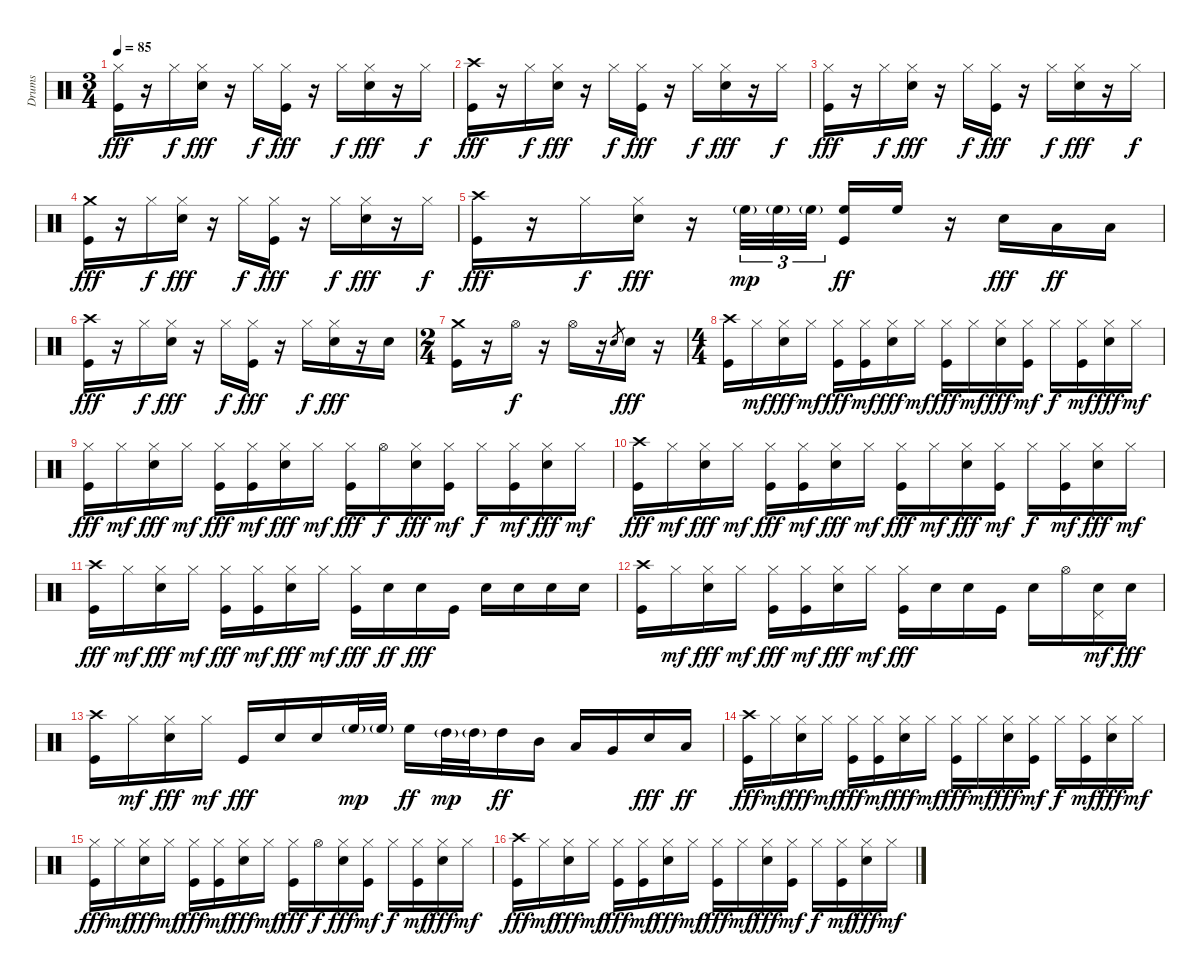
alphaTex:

\track ("Drums" "Drums") {instrument percussion}
\staff {score}
\articulation defaults
\ts (3 4)
\tempo 85
\clef neutral
\ks c
("Kick (hit)" "Hi-Hat (closed)").16{dy fff} r.16 "Hi-Hat (closed)".16{dy f} ("Electric Snare (hit)" "Hi-Hat (closed)").16{dy fff} r.16 "Hi-Hat (closed)".16{dy f} ("Kick (hit)" "Hi-Hat (closed)").16{dy fff} r.16 "Hi-Hat (closed)".16{dy f} ("Electric Snare (hit)" "Hi-Hat (closed)").16{dy fff} r.16 "Hi-Hat (closed)".16{dy f} |
("Kick (hit)" "Crash high (hit)").16{dy fff} r.16 "Hi-Hat (closed)".16{dy f} ("Electric Snare (hit)" "Hi-Hat (closed)").16{dy fff} r.16 "Hi-Hat (closed)".16{dy f} ("Kick (hit)" "Hi-Hat (closed)").16{dy fff} r.16 "Hi-Hat (closed)".16{dy f} ("Electric Snare (hit)" "Hi-Hat (closed)").16{dy fff} r.16 "Hi-Hat (closed)".16{dy f} |
("Kick (hit)" "Hi-Hat (closed)").16{dy fff} r.16 "Hi-Hat (closed)".16{dy f} ("Electric Snare (hit)" "Hi-Hat (closed)").16{dy fff} r.16 "Hi-Hat (closed)".16{dy f} ("Kick (hit)" "Hi-Hat (closed)").16{dy fff} r.16 "Hi-Hat (closed)".16{dy f} ("Electric Snare (hit)" "Hi-Hat (closed)").16{dy fff} r.16 "Hi-Hat (closed)".16{dy f} |
("Kick (hit)" "Crash medium (hit)").16{dy fff} r.16 "Hi-Hat (closed)".16{dy f} ("Electric Snare (hit)" "Hi-Hat (closed)").16{dy fff} r.16 "Hi-Hat (closed)".16{dy f} ("Kick (hit)" "Hi-Hat (closed)").16{dy fff} r.16 "Hi-Hat (closed)".16{dy f} ("Electric Snare (hit)" "Hi-Hat (closed)").16{dy fff} r.16 "Hi-Hat (closed)".16{dy f} |
("Kick (hit)" "Crash high (hit)").16{dy fff} r.16 "Hi-Hat (closed)".16{dy f} ("Electric Snare (hit)" "Hi-Hat (closed)").16{dy fff} r.16 "High Floor Tom (hit)"{g}.32{tu (3 2) dy mp} "High Floor Tom (hit)"{g}.32{tu (3 2)} "High Floor Tom (hit)"{g}.32{tu (3 2)} ("Kick (hit)" "High Floor Tom (hit)").16{dy ff} "High Floor Tom (hit)".16 r.16 "Electric Snare (hit)".16{dy fff} "Low Tom (hit)".16{dy ff} "Low Tom (hit)".16 |
("Kick (hit)" "Crash high (hit)").16{dy fff} r.16 "Hi-Hat (closed)".16{dy f} ("Electric Snare (hit)" "Hi-Hat (closed)").16{dy fff} r.16 "Hi-Hat (closed)".16{dy f} ("Kick (hit)" "Hi-Hat (closed)").16{dy fff} r.16 "Hi-Hat (closed)".16{dy f} ("Electric Snare (hit)" "Hi-Hat (closed)").16{dy fff} r.16 "Electric Snare (hit)".16 |
\ts (2 4)
("Kick (hit)" "Crash medium (hit)").16 r.16 "Hi-Hat (open)".16{dy f} r.16 "Hi-Hat (open)".16 r.16 "Electric Snare (hit)".8{gr} "Electric Snare (hit)".16{dy fff} r.16 |
\ts (4 4)
("Kick (hit)" "Crash high (hit)").16 "Hi-Hat (closed)".16{dy mf} ("Electric Snare (hit)" "Hi-Hat (closed)").16{dy fff} "Hi-Hat (closed)".16{dy mf} ("Kick (hit)" "Hi-Hat (closed)").16{dy fff} ("Kick (hit)" "Hi-Hat (closed)").16{dy mf} ("Electric Snare (hit)" "Hi-Hat (closed)").16{dy fff} "Hi-Hat (closed)".16{dy mf} ("Kick (hit)" "Hi-Hat (closed)").16{dy fff} "Hi-Hat (closed)".16{dy mf} ("Electric Snare (hit)" "Hi-Hat (closed)").16{dy fff} ("Kick (hit)" "Hi-Hat (closed)").16{dy mf} "Hi-Hat (closed)".16{dy f} ("Kick (hit)" "Hi-Hat (closed)").16{dy mf} ("Electric Snare (hit)" "Hi-Hat (closed)").16{dy fff} "Hi-Hat (closed)".16{dy mf} |
("Kick (hit)" "Hi-Hat (closed)").16{dy fff} "Hi-Hat (closed)".16{dy mf} ("Electric Snare (hit)" "Hi-Hat (closed)").16{dy fff} "Hi-Hat (closed)".16{dy mf} ("Kick (hit)" "Hi-Hat (closed)").16{dy fff} ("Kick (hit)" "Hi-Hat (closed)").16{dy mf} ("Electric Snare (hit)" "Hi-Hat (closed)").16{dy fff} "Hi-Hat (closed)".16{dy mf} ("Kick (hit)" "Hi-Hat (closed)").16{dy fff} "Hi-Hat (open)".16{dy f} ("Electric Snare (hit)" "Hi-Hat (closed)").16{dy fff} ("Kick (hit)" "Hi-Hat (closed)").16{dy mf} "Hi-Hat (closed)".16{dy f} ("Kick (hit)" "Hi-Hat (closed)").16{dy mf} ("Electric Snare (hit)" "Hi-Hat (closed)").16{dy fff} "Hi-Hat (closed)".16{dy mf} |
("Kick (hit)" "Crash high (hit)").16{dy fff} "Hi-Hat (closed)".16{dy mf} ("Electric Snare (hit)" "Hi-Hat (closed)").16{dy fff} "Hi-Hat (closed)".16{dy mf} ("Kick (hit)" "Hi-Hat (closed)").16{dy fff} ("Kick (hit)" "Hi-Hat (closed)").16{dy mf} ("Electric Snare (hit)" "Hi-Hat (closed)").16{dy fff} "Hi-Hat (closed)".16{dy mf} ("Kick (hit)" "Hi-Hat (closed)").16{dy fff} "Hi-Hat (closed)".16{dy mf} ("Electric Snare (hit)" "Hi-Hat (closed)").16{dy fff} ("Kick (hit)" "Hi-Hat (closed)").16{dy mf} "Hi-Hat (closed)".16{dy f} ("Kick (hit)" "Hi-Hat (closed)").16{dy mf} ("Electric Snare (hit)" "Hi-Hat (closed)").16{dy fff} "Hi-Hat (closed)".16{dy mf} |
("Kick (hit)" "Crash high (hit)").16{dy fff} "Hi-Hat (closed)".16{dy mf} ("Electric Snare (hit)" "Hi-Hat (closed)").16{dy fff} "Hi-Hat (closed)".16{dy mf} ("Kick (hit)" "Hi-Hat (closed)").16{dy fff} ("Kick (hit)" "Hi-Hat (closed)").16{dy mf} ("Electric Snare (hit)" "Hi-Hat (closed)").16{dy fff} "Hi-Hat (closed)".16{dy mf} ("Kick (hit)" "Hi-Hat (closed)").16{dy fff} "Electric Snare (hit)".16{dy ff} "Electric Snare (hit)".16{dy fff} "Kick (hit)".16 "Electric Snare (hit)".16 "Electric Snare (hit)".16 "Electric Snare (hit)".16 "Electric Snare (hit)".16 |
("Kick (hit)" "Crash high (hit)").16 "Hi-Hat (closed)".16{dy mf} ("Electric Snare (hit)" "Hi-Hat (closed)").16{dy fff} "Hi-Hat (closed)".16{dy mf} ("Kick (hit)" "Hi-Hat (closed)").16{dy fff} ("Kick (hit)" "Hi-Hat (closed)").16{dy mf} ("Electric Snare (hit)" "Hi-Hat (closed)").16{dy fff} "Hi-Hat (closed)".16{dy mf} ("Kick (hit)" "Hi-Hat (closed)").16{dy fff} "Electric Snare (hit)".16 "Electric Snare (hit)".16 "Kick (hit)".16 "Electric Snare (hit)".16 "Hi-Hat (open)".16 ("Electric Snare (hit)" "Pedal Hi-Hat (hit)").16{dy mf} "Electric Snare (hit)".16{dy fff} |
("Kick (hit)" "Crash high (hit)").16 "Hi-Hat (closed)".16{dy mf} ("Electric Snare (hit)" "Hi-Hat (closed)").16{dy fff} "Hi-Hat (closed)".16{dy mf} "Kick (hit)".16{dy fff} "Electric Snare (hit)".16 "Electric Snare (hit)".16 "High Floor Tom (hit)"{g}.32{dy mp} "High Floor Tom (hit)"{g}.32 "High Floor Tom (hit)".16{dy ff} "High Tom (hit)"{g}.32{dy mp} "High Tom (hit)"{g}.32 "High Tom (hit)".16{dy ff} "Mid Tom (hit)".16 "Low Tom (hit)".16 "Very Low Tom (hit)".16 "Electric Snare (hit)".16{dy fff} "Low Floor Tom (hit)".16{dy ff} |
("Kick (hit)" "Crash high (hit)").16{dy fff} "Hi-Hat (closed)".16{dy mf} ("Electric Snare (hit)" "Hi-Hat (closed)").16{dy fff} "Hi-Hat (closed)".16{dy mf} ("Kick (hit)" "Hi-Hat (closed)").16{dy fff} ("Kick (hit)" "Hi-Hat (closed)").16{dy mf} ("Electric Snare (hit)" "Hi-Hat (closed)").16{dy fff} "Hi-Hat (closed)".16{dy mf} ("Kick (hit)" "Hi-Hat (closed)").16{dy fff} "Hi-Hat (closed)".16{dy mf} ("Electric Snare (hit)" "Hi-Hat (closed)").16{dy fff} ("Kick (hit)" "Hi-Hat (closed)").16{dy mf} "Hi-Hat (closed)".16{dy f} ("Kick (hit)" "Hi-Hat (closed)").16{dy mf} ("Electric Snare (hit)" "Hi-Hat (closed)").16{dy fff} "Hi-Hat (closed)".16{dy mf} |
("Kick (hit)" "Hi-Hat (closed)").16{dy fff} "Hi-Hat (closed)".16{dy mf} ("Electric Snare (hit)" "Hi-Hat (closed)").16{dy fff} "Hi-Hat (closed)".16{dy mf} ("Kick (hit)" "Hi-Hat (closed)").16{dy fff} ("Kick (hit)" "Hi-Hat (closed)").16{dy mf} ("Electric Snare (hit)" "Hi-Hat (closed)").16{dy fff} "Hi-Hat (closed)".16{dy mf} ("Kick (hit)" "Hi-Hat (closed)").16{dy fff} "Hi-Hat (open)".16{dy f} ("Electric Snare (hit)" "Hi-Hat (closed)").16{dy fff} ("Kick (hit)" "Hi-Hat (closed)").16{dy mf} "Hi-Hat (closed)".16{dy f} ("Kick (hit)" "Hi-Hat (closed)").16{dy mf} ("Electric Snare (hit)" "Hi-Hat (closed)").16{dy fff} "Hi-Hat (closed)".16{dy mf} |
("Kick (hit)" "Crash high (hit)").16{dy fff} "Hi-Hat (closed)".16{dy mf} ("Electric Snare (hit)" "Hi-Hat (closed)").16{dy fff} "Hi-Hat (closed)".16{dy mf} ("Kick (hit)" "Hi-Hat (closed)").16{dy fff} ("Kick (hit)" "Hi-Hat (closed)").16{dy mf} ("Electric Snare (hit)" "Hi-Hat (closed)").16{dy fff} "Hi-Hat (closed)".16{dy mf} ("Kick (hit)" "Hi-Hat (closed)").16{dy fff} "Hi-Hat (closed)".16{dy mf} ("Electric Snare (hit)" "Hi-Hat (closed)").16{dy fff} ("Kick (hit)" "Hi-Hat (closed)").16{dy mf} "Hi-Hat (closed)".16{dy f} ("Kick (hit)" "Hi-Hat (closed)").16{dy mf} ("Electric Snare (hit)" "Hi-Hat (closed)").16{dy fff} "Hi-Hat (closed)".16{dy mf}
